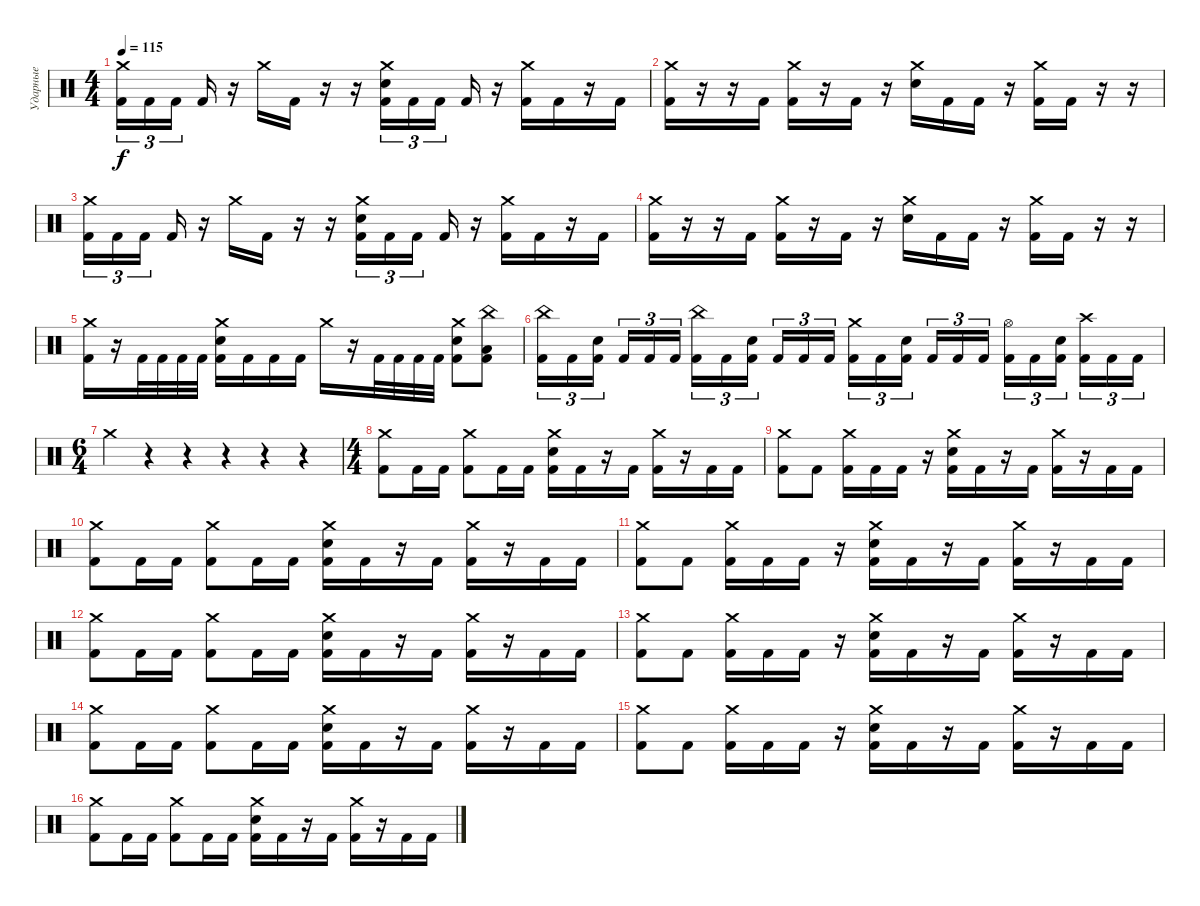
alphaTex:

\track ("Ударные" "Ударные") {instrument percussion}
\staff {score}
\articulation defaults
\ts (4 4)
\tempo 115
\clef neutral
\ks c
("Crash medium (hit)" "Kick (hit) 2").16{tu (3 2) dy f} "Kick (hit) 2".16{tu (3 2)} "Kick (hit) 2".16{tu (3 2) beam splitsecondary} "Kick (hit) 2".16 r.16 "Crash medium (hit)".16 "Kick (hit) 2".16 r.16 r.16 ("Crash medium (hit)" "Electric Snare (hit)" "Kick (hit) 2").16{tu (3 2)} "Kick (hit) 2".16{tu (3 2)} "Kick (hit) 2".16{tu (3 2) beam splitsecondary} "Kick (hit) 2".16 r.16 ("Crash medium (hit)" "Kick (hit) 2").16 "Kick (hit) 2".16 r.16 "Kick (hit) 2".16 |
("Crash medium (hit)" "Kick (hit) 2").16 r.16 r.16 "Kick (hit) 2".16 ("Crash medium (hit)" "Kick (hit) 2").16 r.16 "Kick (hit) 2".16 r.16 ("Crash medium (hit)" "Electric Snare (hit)").16 "Kick (hit) 2".16 "Kick (hit) 2".16 r.16 ("Crash medium (hit)" "Kick (hit) 2").16 "Kick (hit) 2".16 r.16 r.16 |
("Crash medium (hit)" "Kick (hit) 2").16{tu (3 2)} "Kick (hit) 2".16{tu (3 2)} "Kick (hit) 2".16{tu (3 2) beam splitsecondary} "Kick (hit) 2".16 r.16 "Crash medium (hit)".16 "Kick (hit) 2".16 r.16 r.16 ("Crash medium (hit)" "Electric Snare (hit)" "Kick (hit) 2").16{tu (3 2)} "Kick (hit) 2".16{tu (3 2)} "Kick (hit) 2".16{tu (3 2) beam splitsecondary} "Kick (hit) 2".16 r.16 ("Crash medium (hit)" "Kick (hit) 2").16 "Kick (hit) 2".16 r.16 "Kick (hit) 2".16 |
("Crash medium (hit)" "Kick (hit) 2").16 r.16 r.16 "Kick (hit) 2".16 ("Crash medium (hit)" "Kick (hit) 2").16 r.16 "Kick (hit) 2".16 r.16 ("Crash medium (hit)" "Electric Snare (hit)").16 "Kick (hit) 2".16 "Kick (hit) 2".16 r.16 ("Crash medium (hit)" "Kick (hit) 2").16 "Kick (hit) 2".16 r.16 r.16 |
("Crash medium (hit)" "Kick (hit) 2").16 r.16 "Kick (hit) 2".32 "Kick (hit) 2".32 "Kick (hit) 2".32 "Kick (hit) 2".32 ("Crash medium (hit)" "Electric Snare (hit)" "Kick (hit) 2").16 "Kick (hit) 2".16 "Kick (hit) 2".16 "Kick (hit) 2".16 "Crash medium (hit)".16 r.16 "Kick (hit) 2".32 "Kick (hit) 2".32 "Kick (hit) 2".32 "Kick (hit) 2".32 ("Crash medium (hit)" "Electric Snare (hit)" "Kick (hit) 2").8 ("China (hit)" "Low Floor Tom (hit)" "Kick (hit) 2").8 |
("China (hit)" "Kick (hit) 2").16{tu (3 2)} "Kick (hit) 2".16{tu (3 2)} ("Electric Snare (hit)" "Kick (hit) 2").16{tu (3 2) beam splitsecondary} "Kick (hit) 2".16{tu (3 2)} "Kick (hit) 2".16{tu (3 2)} "Kick (hit) 2".16{tu (3 2)} ("China (hit)" "Kick (hit) 2").16{tu (3 2)} "Kick (hit) 2".16{tu (3 2)} ("Electric Snare (hit)" "Kick (hit) 2").16{tu (3 2) beam splitsecondary} "Kick (hit) 2".16{tu (3 2)} "Kick (hit) 2".16{tu (3 2)} "Kick (hit) 2".16{tu (3 2)} ("Crash medium (hit)" "Kick (hit) 2").16{tu (3 2)} "Kick (hit) 2".16{tu (3 2)} ("Electric Snare (hit)" "Kick (hit) 2").16{tu (3 2) beam splitsecondary} "Kick (hit) 2".16{tu (3 2)} "Kick (hit) 2".16{tu (3 2)} "Kick (hit) 2".16{tu (3 2)} ("Hi-Hat (open)" "Kick (hit) 2").16{tu (3 2)} "Kick (hit) 2".16{tu (3 2)} ("Electric Snare (hit)" "Kick (hit) 2").16{tu (3 2) beam splitsecondary} ("Crash high (hit)" "Kick (hit) 2").16{tu (3 2)} "Kick (hit) 2".16{tu (3 2)} "Kick (hit) 2".16{tu (3 2)} |
\ts (6 4)
"Crash medium (hit)".4 r.4 r.4 r.4 r.4 r.4 |
\ts (4 4)
("Crash medium (hit)" "Kick (hit) 2").8 "Kick (hit) 2".16 "Kick (hit) 2".16 ("Crash medium (hit)" "Kick (hit) 2").8 "Kick (hit) 2".16 "Kick (hit) 2".16 ("Crash medium (hit)" "Electric Snare (hit)" "Kick (hit) 2").16 "Kick (hit) 2".16 r.16 "Kick (hit) 2".16 ("Crash medium (hit)" "Kick (hit) 2").16 r.16 "Kick (hit) 2".16 "Kick (hit) 2".16 |
("Crash medium (hit)" "Kick (hit) 2").8 "Kick (hit) 2".8 ("Crash medium (hit)" "Kick (hit) 2").16 "Kick (hit) 2".16 "Kick (hit) 2".16 r.16 ("Crash medium (hit)" "Electric Snare (hit)" "Kick (hit) 2").16 "Kick (hit) 2".16 r.16 "Kick (hit) 2".16 ("Crash medium (hit)" "Kick (hit) 2").16 r.16 "Kick (hit) 2".16 "Kick (hit) 2".16 |
("Crash medium (hit)" "Kick (hit) 2").8 "Kick (hit) 2".16 "Kick (hit) 2".16 ("Crash medium (hit)" "Kick (hit) 2").8 "Kick (hit) 2".16 "Kick (hit) 2".16 ("Crash medium (hit)" "Electric Snare (hit)" "Kick (hit) 2").16 "Kick (hit) 2".16 r.16 "Kick (hit) 2".16 ("Crash medium (hit)" "Kick (hit) 2").16 r.16 "Kick (hit) 2".16 "Kick (hit) 2".16 |
("Crash medium (hit)" "Kick (hit) 2").8 "Kick (hit) 2".8 ("Crash medium (hit)" "Kick (hit) 2").16 "Kick (hit) 2".16 "Kick (hit) 2".16 r.16 ("Crash medium (hit)" "Electric Snare (hit)" "Kick (hit) 2").16 "Kick (hit) 2".16 r.16 "Kick (hit) 2".16 ("Crash medium (hit)" "Kick (hit) 2").16 r.16 "Kick (hit) 2".16 "Kick (hit) 2".16 |
("Crash medium (hit)" "Kick (hit) 2").8 "Kick (hit) 2".16 "Kick (hit) 2".16 ("Crash medium (hit)" "Kick (hit) 2").8 "Kick (hit) 2".16 "Kick (hit) 2".16 ("Crash medium (hit)" "Electric Snare (hit)" "Kick (hit) 2").16 "Kick (hit) 2".16 r.16 "Kick (hit) 2".16 ("Crash medium (hit)" "Kick (hit) 2").16 r.16 "Kick (hit) 2".16 "Kick (hit) 2".16 |
("Crash medium (hit)" "Kick (hit) 2").8 "Kick (hit) 2".8 ("Crash medium (hit)" "Kick (hit) 2").16 "Kick (hit) 2".16 "Kick (hit) 2".16 r.16 ("Crash medium (hit)" "Electric Snare (hit)" "Kick (hit) 2").16 "Kick (hit) 2".16 r.16 "Kick (hit) 2".16 ("Crash medium (hit)" "Kick (hit) 2").16 r.16 "Kick (hit) 2".16 "Kick (hit) 2".16 |
("Crash medium (hit)" "Kick (hit) 2").8 "Kick (hit) 2".16 "Kick (hit) 2".16 ("Crash medium (hit)" "Kick (hit) 2").8 "Kick (hit) 2".16 "Kick (hit) 2".16 ("Crash medium (hit)" "Electric Snare (hit)" "Kick (hit) 2").16 "Kick (hit) 2".16 r.16 "Kick (hit) 2".16 ("Crash medium (hit)" "Kick (hit) 2").16 r.16 "Kick (hit) 2".16 "Kick (hit) 2".16 |
("Crash medium (hit)" "Kick (hit) 2").8 "Kick (hit) 2".8 ("Crash medium (hit)" "Kick (hit) 2").16 "Kick (hit) 2".16 "Kick (hit) 2".16 r.16 ("Crash medium (hit)" "Electric Snare (hit)" "Kick (hit) 2").16 "Kick (hit) 2".16 r.16 "Kick (hit) 2".16 ("Crash medium (hit)" "Kick (hit) 2").16 r.16 "Kick (hit) 2".16 "Kick (hit) 2".16 |
("Crash medium (hit)" "Kick (hit) 2").8 "Kick (hit) 2".16 "Kick (hit) 2".16 ("Crash medium (hit)" "Kick (hit) 2").8 "Kick (hit) 2".16 "Kick (hit) 2".16 ("Crash medium (hit)" "Electric Snare (hit)" "Kick (hit) 2").16 "Kick (hit) 2".16 r.16 "Kick (hit) 2".16 ("Crash medium (hit)" "Kick (hit) 2").16 r.16 "Kick (hit) 2".16 "Kick (hit) 2".16
